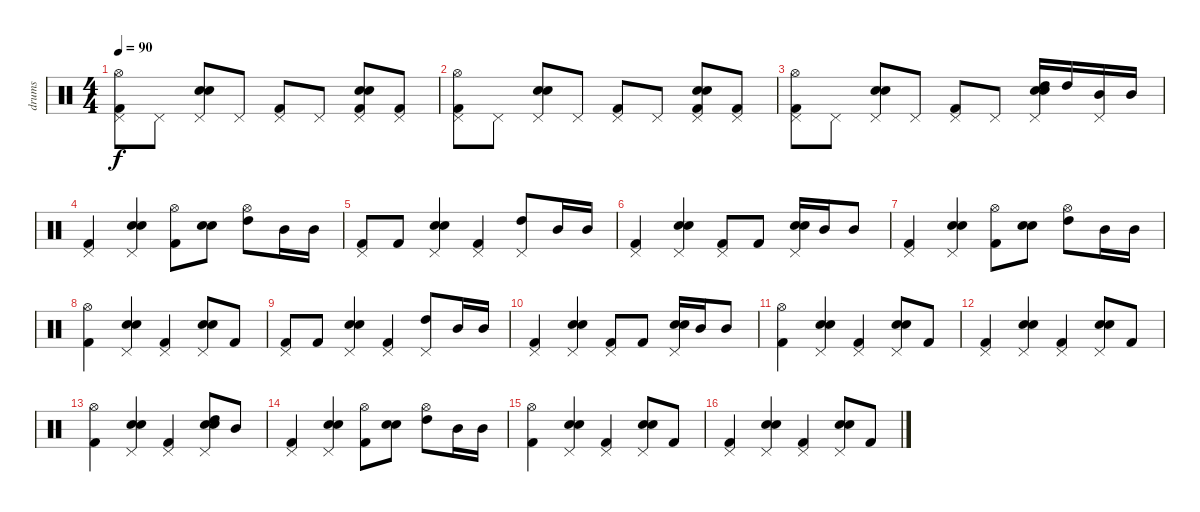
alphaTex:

\track ("drums" "drums") {instrument percussion}
\staff {score}
\articulation defaults
\ts (4 4)
\tempo 90
\clef neutral
\ks c
("Hi-Hat (open)" "Kick (hit) 2" "Pedal Hi-Hat (hit)").8{dy f} "Pedal Hi-Hat (hit)".8 ("Snare (hit) 2" "Electric Snare (hit)" "Pedal Hi-Hat (hit)").8 "Pedal Hi-Hat (hit)".8 ("Kick (hit) 2" "Pedal Hi-Hat (hit)").8 "Pedal Hi-Hat (hit)".8 ("Snare (hit) 2" "Electric Snare (hit)" "Kick (hit) 2" "Pedal Hi-Hat (hit)").8 ("Kick (hit) 2" "Pedal Hi-Hat (hit)").8 |
("Hi-Hat (open)" "Kick (hit) 2" "Pedal Hi-Hat (hit)").8 "Pedal Hi-Hat (hit)".8 ("Snare (hit) 2" "Electric Snare (hit)" "Pedal Hi-Hat (hit)").8 "Pedal Hi-Hat (hit)".8 ("Kick (hit) 2" "Pedal Hi-Hat (hit)").8 "Pedal Hi-Hat (hit)".8 ("Snare (hit) 2" "Electric Snare (hit)" "Kick (hit) 2" "Pedal Hi-Hat (hit)").8 ("Kick (hit) 2" "Pedal Hi-Hat (hit)").8 |
("Hi-Hat (open)" "Kick (hit) 2" "Pedal Hi-Hat (hit)").8 "Pedal Hi-Hat (hit)".8 ("Snare (hit) 2" "Electric Snare (hit)" "Pedal Hi-Hat (hit)").8 "Pedal Hi-Hat (hit)".8 ("Kick (hit) 2" "Pedal Hi-Hat (hit)").8 "Pedal Hi-Hat (hit)".8 ("Snare (hit) 2" "Electric Snare (hit)" "High Tom (hit)" "Pedal Hi-Hat (hit)").16 "High Tom (hit)".16 ("Mid Tom (hit)" "Pedal Hi-Hat (hit)").16 "Mid Tom (hit)".16 |
("Kick (hit) 2" "Pedal Hi-Hat (hit)").4 ("Snare (hit) 2" "Electric Snare (hit)" "Pedal Hi-Hat (hit)").4 ("Hi-Hat (open)" "Kick (hit) 2").8 ("Snare (hit) 2" "Electric Snare (hit)").8 ("Hi-Hat (open)" "High Tom (hit)").8 "Mid Tom (hit)".16 "Mid Tom (hit)".16 |
("Kick (hit) 2" "Pedal Hi-Hat (hit)").8 "Kick (hit) 2".8 ("Snare (hit) 2" "Electric Snare (hit)" "Pedal Hi-Hat (hit)").4 ("Kick (hit) 2" "Pedal Hi-Hat (hit)").4 ("High Tom (hit)" "Pedal Hi-Hat (hit)").8 "Mid Tom (hit)".16 "Mid Tom (hit)".16 |
("Kick (hit) 2" "Pedal Hi-Hat (hit)").4 ("Snare (hit) 2" "Electric Snare (hit)" "Pedal Hi-Hat (hit)").4 ("Kick (hit) 2" "Pedal Hi-Hat (hit)").8 "Kick (hit) 2".8 ("Snare (hit) 2" "Electric Snare (hit)" "Pedal Hi-Hat (hit)").16 "Mid Tom (hit)".16 "Mid Tom (hit)".8 |
("Kick (hit) 2" "Pedal Hi-Hat (hit)").4 ("Snare (hit) 2" "Electric Snare (hit)" "Pedal Hi-Hat (hit)").4 ("Hi-Hat (open)" "Kick (hit) 2").8 ("Snare (hit) 2" "Electric Snare (hit)").8 ("Hi-Hat (open)" "High Tom (hit)").8 "Mid Tom (hit)".16 "Mid Tom (hit)".16 |
("Hi-Hat (open)" "Kick (hit) 2").4 ("Snare (hit) 2" "Electric Snare (hit)" "Pedal Hi-Hat (hit)").4 ("Kick (hit) 2" "Pedal Hi-Hat (hit)").4 ("Snare (hit) 2" "Electric Snare (hit)" "Pedal Hi-Hat (hit)").8 "Kick (hit) 2".8 |
("Kick (hit) 2" "Pedal Hi-Hat (hit)").8 "Kick (hit) 2".8 ("Snare (hit) 2" "Electric Snare (hit)" "Pedal Hi-Hat (hit)").4 ("Kick (hit) 2" "Pedal Hi-Hat (hit)").4 ("High Tom (hit)" "Pedal Hi-Hat (hit)").8 "Mid Tom (hit)".16 "Mid Tom (hit)".16 |
("Kick (hit) 2" "Pedal Hi-Hat (hit)").4 ("Snare (hit) 2" "Electric Snare (hit)" "Pedal Hi-Hat (hit)").4 ("Kick (hit) 2" "Pedal Hi-Hat (hit)").8 "Kick (hit) 2".8 ("Snare (hit) 2" "Electric Snare (hit)" "Pedal Hi-Hat (hit)").16 "Mid Tom (hit)".16 "Mid Tom (hit)".8 |
("Hi-Hat (open)" "Kick (hit) 2").4 ("Snare (hit) 2" "Electric Snare (hit)" "Pedal Hi-Hat (hit)").4 ("Kick (hit) 2" "Pedal Hi-Hat (hit)").4 ("Snare (hit) 2" "Electric Snare (hit)" "Pedal Hi-Hat (hit)").8 "Kick (hit) 2".8 |
("Kick (hit) 2" "Pedal Hi-Hat (hit)").4 ("Snare (hit) 2" "Electric Snare (hit)" "Pedal Hi-Hat (hit)").4 ("Kick (hit) 2" "Pedal Hi-Hat (hit)").4 ("Snare (hit) 2" "Electric Snare (hit)" "Pedal Hi-Hat (hit)").8 "Kick (hit) 2".8 |
("Hi-Hat (open)" "Kick (hit) 2").4 ("Snare (hit) 2" "Electric Snare (hit)" "Pedal Hi-Hat (hit)").4 ("Kick (hit) 2" "Pedal Hi-Hat (hit)").4 ("Snare (hit) 2" "Electric Snare (hit)" "High Tom (hit)" "Pedal Hi-Hat (hit)").8 "Mid Tom (hit)".8 |
("Kick (hit) 2" "Pedal Hi-Hat (hit)").4 ("Snare (hit) 2" "Electric Snare (hit)" "Pedal Hi-Hat (hit)").4 ("Hi-Hat (open)" "Kick (hit) 2").8 ("Snare (hit) 2" "Electric Snare (hit)").8 ("Hi-Hat (open)" "High Tom (hit)").8 "Mid Tom (hit)".16 "Mid Tom (hit)".16 |
("Hi-Hat (open)" "Kick (hit) 2").4 ("Snare (hit) 2" "Electric Snare (hit)" "Pedal Hi-Hat (hit)").4 ("Kick (hit) 2" "Pedal Hi-Hat (hit)").4 ("Snare (hit) 2" "Electric Snare (hit)" "Pedal Hi-Hat (hit)").8 "Kick (hit) 2".8 |
("Kick (hit) 2" "Pedal Hi-Hat (hit)").4 ("Snare (hit) 2" "Electric Snare (hit)" "Pedal Hi-Hat (hit)").4 ("Kick (hit) 2" "Pedal Hi-Hat (hit)").4 ("Snare (hit) 2" "Electric Snare (hit)" "Pedal Hi-Hat (hit)").8 "Kick (hit) 2".8
